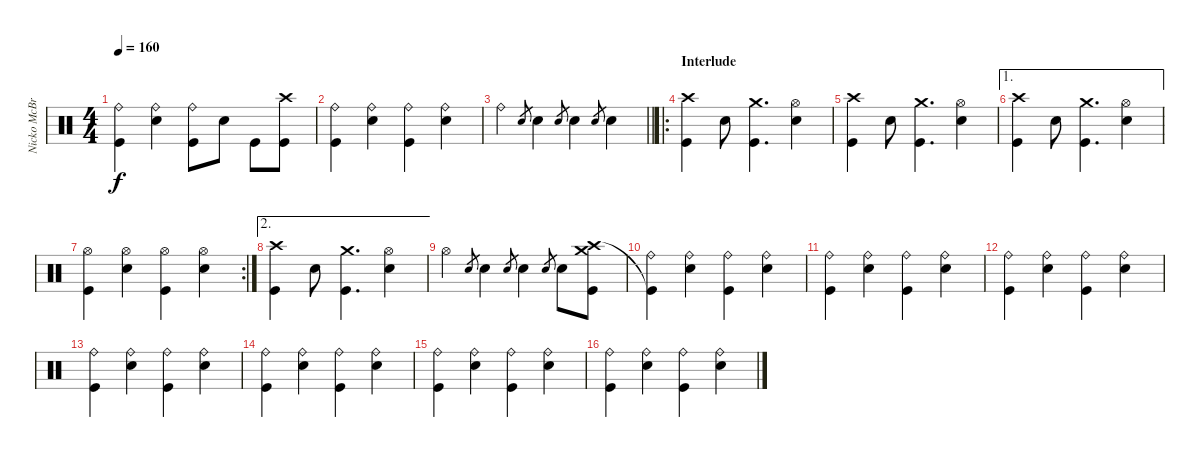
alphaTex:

\track ("Nicko McBrain" "Nicko McBr") {instrument percussion}
\staff {score}
\articulation defaults
\ts (4 4)
\tempo 160
\clef neutral
\ks c
("Ride (bell)" "Kick (hit)").4{dy f} ("Ride (bell)" "Snare (hit) 2").4 ("Ride (bell)" "Kick (hit)").8 "Snare (hit) 2".8 "Kick (hit)".8 ("Crash high (hit)" "Kick (hit)").8 |
("Ride (bell)" "Kick (hit)").4 ("Ride (bell)" "Snare (hit) 2").4 ("Ride (bell)" "Kick (hit)").4 ("Ride (bell)" "Snare (hit) 2").4 |
\barLineRight lightlight "Ride (bell)".4 "Snare (hit) 2".8{gr} "Snare (hit) 2".4 "Snare (hit) 2".8{gr} "Snare (hit) 2".4 "Snare (hit) 2".8{gr} "Snare (hit) 2".4
|
\ro
\section ("" "Interlude")
("Crash high (hit)" "Kick (hit)").4 "Snare (hit) 2".8 ("Crash medium (hit)" "Kick (hit)").4{d} ("Hi-Hat (open)" "Snare (hit) 2").4 |
("Crash high (hit)" "Kick (hit)").4 "Snare (hit) 2".8 ("Crash medium (hit)" "Kick (hit)").4{d} ("Hi-Hat (open)" "Snare (hit) 2").4 |
\ae 1
("Crash high (hit)" "Kick (hit)").4 "Snare (hit) 2".8 ("Crash medium (hit)" "Kick (hit)").4{d} ("Hi-Hat (open)" "Snare (hit) 2").4 |
\rc 2
("Hi-Hat (open)" "Kick (hit)").4 ("Hi-Hat (open)" "Snare (hit) 2").4 ("Hi-Hat (open)" "Kick (hit)").4 ("Hi-Hat (open)" "Snare (hit) 2").4 |
\ae 2
("Crash high (hit)" "Kick (hit)").4 "Snare (hit) 2".8 ("Crash medium (hit)" "Kick (hit)").4{d} ("Hi-Hat (open)" "Snare (hit) 2").4 |
"Hi-Hat (open)".4 "Snare (hit) 2".8{gr} "Snare (hit) 2".4 "Snare (hit) 2".8{gr} "Snare (hit) 2".4 "Snare (hit) 2".8{gr} "Snare (hit) 2".8 ("Crash medium (hit)" "Crash high (hit)" "Kick (hit)").8 |
("Ride (bell)" "Kick (hit)"{t}).4 ("Ride (bell)" "Snare (hit) 2").4 ("Ride (bell)" "Kick (hit)").4 ("Ride (bell)" "Snare (hit) 2").4 |
("Ride (bell)" "Kick (hit)").4 ("Ride (bell)" "Snare (hit) 2").4 ("Ride (bell)" "Kick (hit)").4 ("Ride (bell)" "Snare (hit) 2").4 |
("Ride (bell)" "Kick (hit)").4 ("Ride (bell)" "Snare (hit) 2").4 ("Ride (bell)" "Kick (hit)").4 ("Ride (bell)" "Snare (hit) 2").4 |
("Ride (bell)" "Kick (hit)").4 ("Ride (bell)" "Snare (hit) 2").4 ("Ride (bell)" "Kick (hit)").4 ("Ride (bell)" "Snare (hit) 2").4 |
("Ride (bell)" "Kick (hit)").4 ("Ride (bell)" "Snare (hit) 2").4 ("Ride (bell)" "Kick (hit)").4 ("Ride (bell)" "Snare (hit) 2").4 |
("Ride (bell)" "Kick (hit)").4 ("Ride (bell)" "Snare (hit) 2").4 ("Ride (bell)" "Kick (hit)").4 ("Ride (bell)" "Snare (hit) 2").4 |
("Ride (bell)" "Kick (hit)").4 ("Ride (bell)" "Snare (hit) 2").4 ("Ride (bell)" "Kick (hit)").4 ("Ride (bell)" "Snare (hit) 2").4
